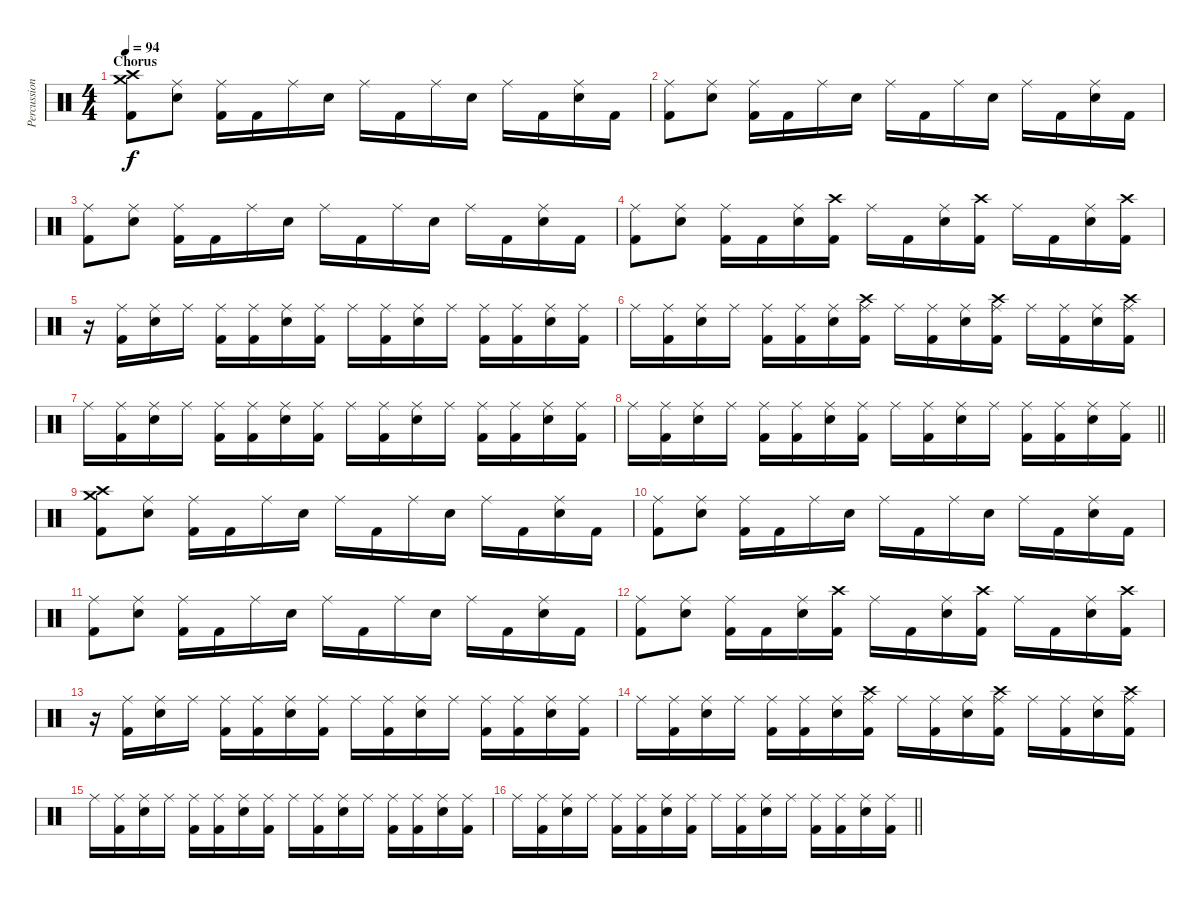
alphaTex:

\track ("Percussion" "Percussion") {instrument percussion}
\staff {score}
\articulation defaults
\ts (4 4)
\section ("" "Chorus")
\tempo 94
\clef neutral
\ks c
("Crash high (hit)" "Crash medium (hit)" "Kick (hit) 2").8{dy f} ("Ride (middle)" "Electric Snare (hit)").8 ("Ride (middle)" "Kick (hit) 2").16 "Kick (hit) 2".16 "Ride (middle)".16 "Electric Snare (hit)".16 "Ride (middle)".16 "Kick (hit) 2".16 "Ride (middle)".16 "Electric Snare (hit)".16 "Ride (middle)".16 "Kick (hit) 2".16 ("Ride (middle)" "Electric Snare (hit)").16 "Kick (hit) 2".16 |
("Ride (middle)" "Kick (hit) 2").8 ("Ride (middle)" "Electric Snare (hit)").8 ("Ride (middle)" "Kick (hit) 2").16 "Kick (hit) 2".16 "Ride (middle)".16 "Electric Snare (hit)".16 "Ride (middle)".16 "Kick (hit) 2".16 "Ride (middle)".16 "Electric Snare (hit)".16 "Ride (middle)".16 "Kick (hit) 2".16 ("Ride (middle)" "Electric Snare (hit)").16 "Kick (hit) 2".16 |
("Ride (middle)" "Kick (hit) 2").8 ("Ride (middle)" "Electric Snare (hit)").8 ("Ride (middle)" "Kick (hit) 2").16 "Kick (hit) 2".16 "Ride (middle)".16 "Electric Snare (hit)".16 "Ride (middle)".16 "Kick (hit) 2".16 "Ride (middle)".16 "Electric Snare (hit)".16 "Ride (middle)".16 "Kick (hit) 2".16 ("Ride (middle)" "Electric Snare (hit)").16 "Kick (hit) 2".16 |
("Ride (middle)" "Kick (hit) 2").8 ("Ride (middle)" "Electric Snare (hit)").8 ("Ride (middle)" "Kick (hit) 2").16 "Kick (hit) 2".16 ("Ride (middle)" "Electric Snare (hit)").16 ("Crash high (hit)" "Kick (hit) 2").16 "Ride (middle)".16 "Kick (hit) 2".16 ("Ride (middle)" "Electric Snare (hit)").16 ("Crash high (hit)" "Kick (hit) 2").16 "Ride (middle)".16 "Kick (hit) 2".16 ("Ride (middle)" "Electric Snare (hit)").16 ("Crash high (hit)" "Kick (hit) 2").16 |
r.16 ("Ride (middle)" "Kick (hit) 2").16 ("Ride (middle)" "Electric Snare (hit)").16 "Ride (middle)".16 ("Ride (middle)" "Kick (hit) 2").16 ("Ride (middle)" "Kick (hit) 2").16 ("Ride (middle)" "Electric Snare (hit)").16 ("Ride (middle)" "Kick (hit) 2").16 "Ride (middle)".16 ("Ride (middle)" "Kick (hit) 2").16 ("Ride (middle)" "Electric Snare (hit)").16 "Ride (middle)".16 ("Ride (middle)" "Kick (hit) 2").16 ("Ride (middle)" "Kick (hit) 2").16 ("Ride (middle)" "Electric Snare (hit)").16 ("Ride (middle)" "Kick (hit) 2").16 |
"Ride (middle)".16 ("Ride (middle)" "Kick (hit) 2").16 ("Ride (middle)" "Electric Snare (hit)").16 "Ride (middle)".16 ("Ride (middle)" "Kick (hit) 2").16 ("Ride (middle)" "Kick (hit) 2").16 ("Ride (middle)" "Electric Snare (hit)").16 ("Crash high (hit)" "Ride (middle)" "Kick (hit) 2").16 "Ride (middle)".16 ("Ride (middle)" "Kick (hit) 2").16 ("Ride (middle)" "Electric Snare (hit)").16 ("Crash high (hit)" "Ride (middle)" "Kick (hit) 2").16 "Ride (middle)".16 ("Ride (middle)" "Kick (hit) 2").16 ("Ride (middle)" "Electric Snare (hit)").16 ("Crash high (hit)" "Ride (middle)" "Kick (hit) 2").16 |
"Ride (middle)".16 ("Ride (middle)" "Kick (hit) 2").16 ("Ride (middle)" "Electric Snare (hit)").16 "Ride (middle)".16 ("Ride (middle)" "Kick (hit) 2").16 ("Ride (middle)" "Kick (hit) 2").16 ("Ride (middle)" "Electric Snare (hit)").16 ("Ride (middle)" "Kick (hit) 2").16 "Ride (middle)".16 ("Ride (middle)" "Kick (hit) 2").16 ("Ride (middle)" "Electric Snare (hit)").16 "Ride (middle)".16 ("Ride (middle)" "Kick (hit) 2").16 ("Ride (middle)" "Kick (hit) 2").16 ("Ride (middle)" "Electric Snare (hit)").16 ("Ride (middle)" "Kick (hit) 2").16 |
\barLineRight lightlight "Ride (middle)".16
("Ride (middle)" "Kick (hit) 2").16 ("Ride (middle)" "Electric Snare (hit)").16 "Ride (middle)".16 ("Ride (middle)" "Kick (hit) 2").16 ("Ride (middle)" "Kick (hit) 2").16 ("Ride (middle)" "Electric Snare (hit)").16 ("Ride (middle)" "Kick (hit) 2").16 "Ride (middle)".16 ("Ride (middle)" "Kick (hit) 2").16 ("Ride (middle)" "Electric Snare (hit)").16 "Ride (middle)".16 ("Ride (middle)" "Kick (hit) 2").16 ("Ride (middle)" "Kick (hit) 2").16 ("Ride (middle)" "Electric Snare (hit)").16 ("Ride (middle)" "Kick (hit) 2").16 |
("Crash high (hit)" "Crash medium (hit)" "Kick (hit) 2").8 ("Ride (middle)" "Electric Snare (hit)").8 ("Ride (middle)" "Kick (hit) 2").16 "Kick (hit) 2".16 "Ride (middle)".16 "Electric Snare (hit)".16 "Ride (middle)".16 "Kick (hit) 2".16 "Ride (middle)".16 "Electric Snare (hit)".16 "Ride (middle)".16 "Kick (hit) 2".16 ("Ride (middle)" "Electric Snare (hit)").16 "Kick (hit) 2".16 |
("Ride (middle)" "Kick (hit) 2").8 ("Ride (middle)" "Electric Snare (hit)").8 ("Ride (middle)" "Kick (hit) 2").16 "Kick (hit) 2".16 "Ride (middle)".16 "Electric Snare (hit)".16 "Ride (middle)".16 "Kick (hit) 2".16 "Ride (middle)".16 "Electric Snare (hit)".16 "Ride (middle)".16 "Kick (hit) 2".16 ("Ride (middle)" "Electric Snare (hit)").16 "Kick (hit) 2".16 |
("Ride (middle)" "Kick (hit) 2").8 ("Ride (middle)" "Electric Snare (hit)").8 ("Ride (middle)" "Kick (hit) 2").16 "Kick (hit) 2".16 "Ride (middle)".16 "Electric Snare (hit)".16 "Ride (middle)".16 "Kick (hit) 2".16 "Ride (middle)".16 "Electric Snare (hit)".16 "Ride (middle)".16 "Kick (hit) 2".16 ("Ride (middle)" "Electric Snare (hit)").16 "Kick (hit) 2".16 |
("Ride (middle)" "Kick (hit) 2").8 ("Ride (middle)" "Electric Snare (hit)").8 ("Ride (middle)" "Kick (hit) 2").16 "Kick (hit) 2".16 ("Ride (middle)" "Electric Snare (hit)").16 ("Crash high (hit)" "Kick (hit) 2").16 "Ride (middle)".16 "Kick (hit) 2".16 ("Ride (middle)" "Electric Snare (hit)").16 ("Crash high (hit)" "Kick (hit) 2").16 "Ride (middle)".16 "Kick (hit) 2".16 ("Ride (middle)" "Electric Snare (hit)").16 ("Crash high (hit)" "Kick (hit) 2").16 |
r.16 ("Ride (middle)" "Kick (hit) 2").16 ("Ride (middle)" "Electric Snare (hit)").16 "Ride (middle)".16 ("Ride (middle)" "Kick (hit) 2").16 ("Ride (middle)" "Kick (hit) 2").16 ("Ride (middle)" "Electric Snare (hit)").16 ("Ride (middle)" "Kick (hit) 2").16 "Ride (middle)".16 ("Ride (middle)" "Kick (hit) 2").16 ("Ride (middle)" "Electric Snare (hit)").16 "Ride (middle)".16 ("Ride (middle)" "Kick (hit) 2").16 ("Ride (middle)" "Kick (hit) 2").16 ("Ride (middle)" "Electric Snare (hit)").16 ("Ride (middle)" "Kick (hit) 2").16 |
"Ride (middle)".16 ("Ride (middle)" "Kick (hit) 2").16 ("Ride (middle)" "Electric Snare (hit)").16 "Ride (middle)".16 ("Ride (middle)" "Kick (hit) 2").16 ("Ride (middle)" "Kick (hit) 2").16 ("Ride (middle)" "Electric Snare (hit)").16 ("Crash high (hit)" "Ride (middle)" "Kick (hit) 2").16 "Ride (middle)".16 ("Ride (middle)" "Kick (hit) 2").16 ("Ride (middle)" "Electric Snare (hit)").16 ("Crash high (hit)" "Ride (middle)" "Kick (hit) 2").16 "Ride (middle)".16 ("Ride (middle)" "Kick (hit) 2").16 ("Ride (middle)" "Electric Snare (hit)").16 ("Crash high (hit)" "Ride (middle)" "Kick (hit) 2").16 |
"Ride (middle)".16 ("Ride (middle)" "Kick (hit) 2").16 ("Ride (middle)" "Electric Snare (hit)").16 "Ride (middle)".16 ("Ride (middle)" "Kick (hit) 2").16 ("Ride (middle)" "Kick (hit) 2").16 ("Ride (middle)" "Electric Snare (hit)").16 ("Ride (middle)" "Kick (hit) 2").16 "Ride (middle)".16 ("Ride (middle)" "Kick (hit) 2").16 ("Ride (middle)" "Electric Snare (hit)").16 "Ride (middle)".16 ("Ride (middle)" "Kick (hit) 2").16 ("Ride (middle)" "Kick (hit) 2").16 ("Ride (middle)" "Electric Snare (hit)").16 ("Ride (middle)" "Kick (hit) 2").16 |
\barLineRight lightlight "Ride (middle)".16
("Ride (middle)" "Kick (hit) 2").16 ("Ride (middle)" "Electric Snare (hit)").16 "Ride (middle)".16 ("Ride (middle)" "Kick (hit) 2").16 ("Ride (middle)" "Kick (hit) 2").16 ("Ride (middle)" "Electric Snare (hit)").16 ("Ride (middle)" "Kick (hit) 2").16 "Ride (middle)".16 ("Ride (middle)" "Kick (hit) 2").16 ("Ride (middle)" "Electric Snare (hit)").16 "Ride (middle)".16 ("Ride (middle)" "Kick (hit) 2").16 ("Ride (middle)" "Kick (hit) 2").16 ("Ride (middle)" "Electric Snare (hit)").16 ("Ride (middle)" "Kick (hit) 2").16
